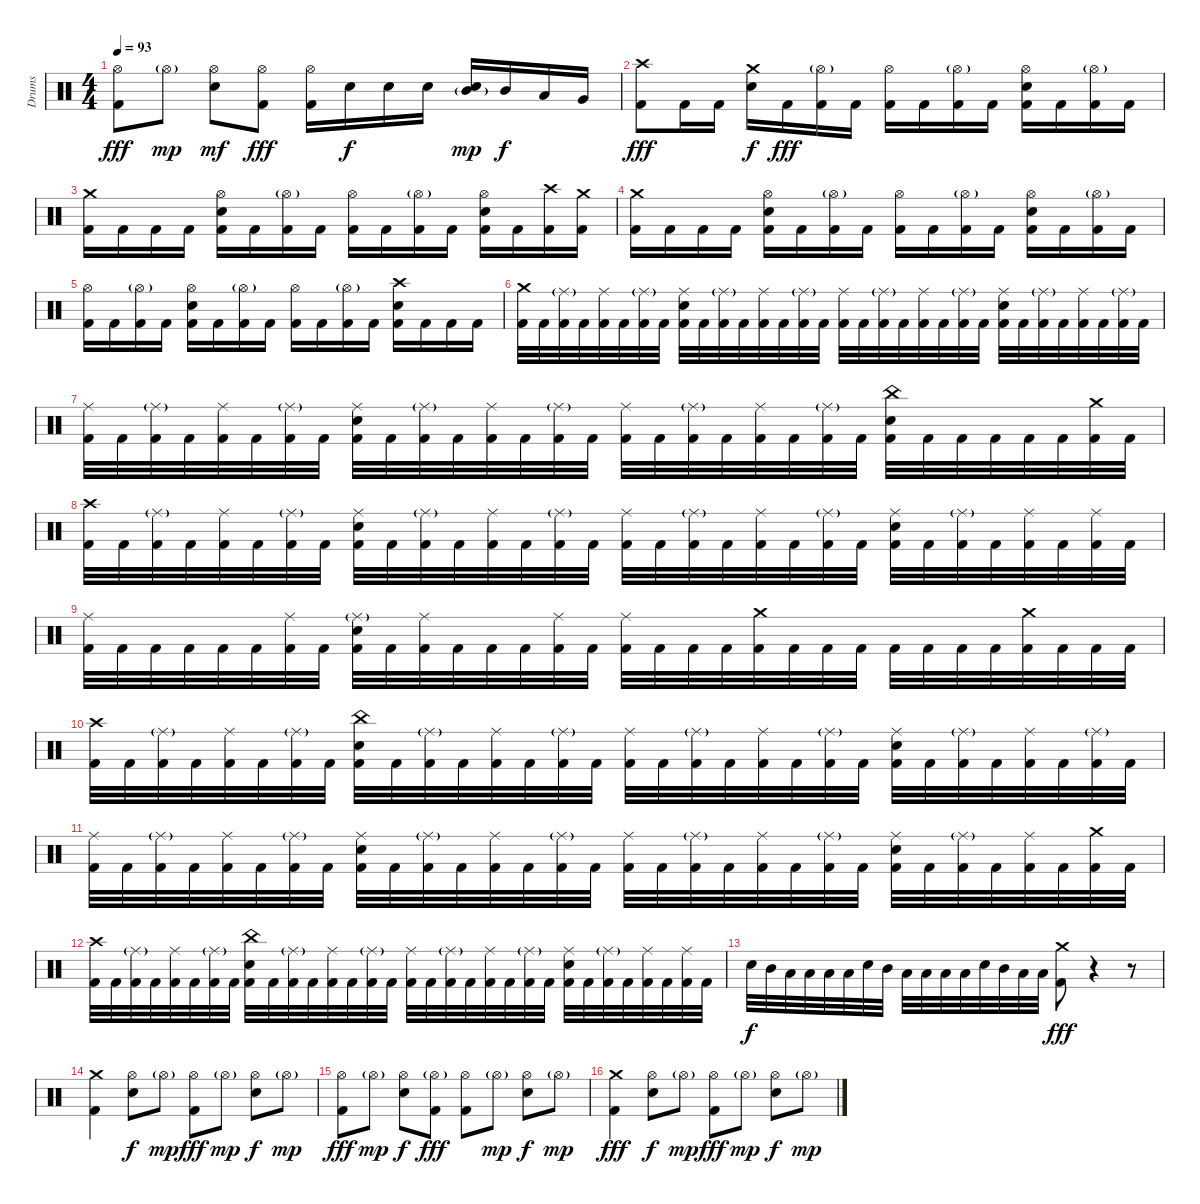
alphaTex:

\track ("Drums" "Drums") {instrument percussion}
\staff {score}
\articulation defaults
\ts (4 4)
\tempo 93
\clef neutral
\ks c
("Hi-Hat (open)" "Kick (hit) 2").8{dy fff} "Hi-Hat (open)"{g}.8{dy mp} ("Hi-Hat (open)" "Electric Snare (hit)").8{dy mf} ("Hi-Hat (open)" "Kick (hit) 2").8{dy fff} ("Hi-Hat (open)" "Kick (hit) 2").16 "Electric Snare (hit)".16{dy f} "Electric Snare (hit)".16 "Electric Snare (hit)".16 ("Mid Tom (hit)"{g} "Electric Snare (hit)").16{dy mp} "Mid Tom (hit)".16{dy f} "Low Tom (hit)".16 "Very Low Tom (hit)".16 |
("Crash high (hit)" "Kick (hit) 2").8{dy fff} "Kick (hit) 2".16 "Kick (hit) 2".16 ("Crash medium (hit)" "Electric Snare (hit)").16{dy f} "Kick (hit) 2".16{dy fff} ("Hi-Hat (open)"{g} "Kick (hit) 2").16 "Kick (hit) 2".16 ("Hi-Hat (open)" "Kick (hit) 2").16 "Kick (hit) 2".16 ("Hi-Hat (open)"{g} "Kick (hit) 2").16 "Kick (hit) 2".16 ("Hi-Hat (open)" "Electric Snare (hit)" "Kick (hit) 2").16 "Kick (hit) 2".16 ("Hi-Hat (open)"{g} "Kick (hit) 2").16 "Kick (hit) 2".16 |
("Crash medium (hit)" "Kick (hit) 2").16 "Kick (hit) 2".16 "Kick (hit) 2".16 "Kick (hit) 2".16 ("Hi-Hat (open)" "Electric Snare (hit)" "Kick (hit) 2").16 "Kick (hit) 2".16 ("Hi-Hat (open)"{g} "Kick (hit) 2").16 "Kick (hit) 2".16 ("Hi-Hat (open)" "Kick (hit) 2").16 "Kick (hit) 2".16 ("Hi-Hat (open)"{g} "Kick (hit) 2").16 "Kick (hit) 2".16 ("Hi-Hat (open)" "Electric Snare (hit)" "Kick (hit) 2").16 "Kick (hit) 2".16 ("Crash high (hit)" "Kick (hit) 2").16 ("Crash medium (hit)" "Kick (hit) 2").16 |
("Crash medium (hit)" "Kick (hit) 2").16 "Kick (hit) 2".16 "Kick (hit) 2".16 "Kick (hit) 2".16 ("Hi-Hat (open)" "Electric Snare (hit)" "Kick (hit) 2").16 "Kick (hit) 2".16 ("Hi-Hat (open)"{g} "Kick (hit) 2").16 "Kick (hit) 2".16 ("Hi-Hat (open)" "Kick (hit) 2").16 "Kick (hit) 2".16 ("Hi-Hat (open)"{g} "Kick (hit) 2").16 "Kick (hit) 2".16 ("Hi-Hat (open)" "Electric Snare (hit)" "Kick (hit) 2").16 "Kick (hit) 2".16 ("Hi-Hat (open)"{g} "Kick (hit) 2").16 "Kick (hit) 2".16 |
("Hi-Hat (open)" "Kick (hit) 2").16 "Kick (hit) 2".16 ("Hi-Hat (open)"{g} "Kick (hit) 2").16 "Kick (hit) 2".16 ("Hi-Hat (open)" "Electric Snare (hit)" "Kick (hit) 2").16 "Kick (hit) 2".16 ("Hi-Hat (open)"{g} "Kick (hit) 2").16 "Kick (hit) 2".16 ("Hi-Hat (open)" "Kick (hit) 2").16 "Kick (hit) 2".16 ("Hi-Hat (open)"{g} "Kick (hit) 2").16 "Kick (hit) 2".16 ("Crash high (hit)" "Electric Snare (hit)" "Kick (hit) 2").16 "Kick (hit) 2".16 "Kick (hit) 2".16 "Kick (hit) 2".16 |
("Crash medium (hit)" "Kick (hit) 2").32 "Kick (hit) 2".32 ("Ride (middle)"{g} "Kick (hit) 2").32 "Kick (hit) 2".32 ("Ride (middle)" "Kick (hit) 2").32 "Kick (hit) 2".32 ("Ride (middle)"{g} "Kick (hit) 2").32 "Kick (hit) 2".32 ("Ride (middle)" "Electric Snare (hit)" "Kick (hit) 2").32 "Kick (hit) 2".32 ("Ride (middle)"{g} "Kick (hit) 2").32 "Kick (hit) 2".32 ("Ride (middle)" "Kick (hit) 2").32 "Kick (hit) 2".32 ("Ride (middle)"{g} "Kick (hit) 2").32 "Kick (hit) 2".32 ("Ride (middle)" "Kick (hit) 2").32 "Kick (hit) 2".32 ("Ride (middle)"{g} "Kick (hit) 2").32 "Kick (hit) 2".32 ("Ride (middle)" "Kick (hit) 2").32 "Kick (hit) 2".32 ("Ride (middle)"{g} "Kick (hit) 2").32 "Kick (hit) 2".32 ("Ride (middle)" "Electric Snare (hit)" "Kick (hit) 2").32 "Kick (hit) 2".32 ("Ride (middle)"{g} "Kick (hit) 2").32 "Kick (hit) 2".32 ("Ride (middle)" "Kick (hit) 2").32 "Kick (hit) 2".32 ("Ride (middle)"{g} "Kick (hit) 2").32 "Kick (hit) 2".32 |
("Ride (middle)" "Kick (hit) 2").32 "Kick (hit) 2".32 ("Ride (middle)"{g} "Kick (hit) 2").32 "Kick (hit) 2".32 ("Ride (middle)" "Kick (hit) 2").32 "Kick (hit) 2".32 ("Ride (middle)"{g} "Kick (hit) 2").32 "Kick (hit) 2".32 ("Ride (middle)" "Electric Snare (hit)" "Kick (hit) 2").32 "Kick (hit) 2".32 ("Ride (middle)"{g} "Kick (hit) 2").32 "Kick (hit) 2".32 ("Ride (middle)" "Kick (hit) 2").32 "Kick (hit) 2".32 ("Ride (middle)"{g} "Kick (hit) 2").32 "Kick (hit) 2".32 ("Ride (middle)" "Kick (hit) 2").32 "Kick (hit) 2".32 ("Ride (middle)"{g} "Kick (hit) 2").32 "Kick (hit) 2".32 ("Ride (middle)" "Kick (hit) 2").32 "Kick (hit) 2".32 ("Ride (middle)"{g} "Kick (hit) 2").32 "Kick (hit) 2".32 ("China (hit)" "Electric Snare (hit)" "Kick (hit) 2").32 "Kick (hit) 2".32 "Kick (hit) 2".32 "Kick (hit) 2".32 "Kick (hit) 2".32 "Kick (hit) 2".32 ("Crash medium (hit)" "Kick (hit) 2").32 "Kick (hit) 2".32 |
("Crash high (hit)" "Kick (hit) 2").32 "Kick (hit) 2".32 ("Ride (middle)"{g} "Kick (hit) 2").32 "Kick (hit) 2".32 ("Ride (middle)" "Kick (hit) 2").32 "Kick (hit) 2".32 ("Ride (middle)"{g} "Kick (hit) 2").32 "Kick (hit) 2".32 ("Ride (middle)" "Electric Snare (hit)" "Kick (hit) 2").32 "Kick (hit) 2".32 ("Ride (middle)"{g} "Kick (hit) 2").32 "Kick (hit) 2".32 ("Ride (middle)" "Kick (hit) 2").32 "Kick (hit) 2".32 ("Ride (middle)"{g} "Kick (hit) 2").32 "Kick (hit) 2".32 ("Ride (middle)" "Kick (hit) 2").32 "Kick (hit) 2".32 ("Ride (middle)"{g} "Kick (hit) 2").32 "Kick (hit) 2".32 ("Ride (middle)" "Kick (hit) 2").32 "Kick (hit) 2".32 ("Ride (middle)"{g} "Kick (hit) 2").32 "Kick (hit) 2".32 ("Ride (middle)" "Electric Snare (hit)" "Kick (hit) 2").32 "Kick (hit) 2".32 ("Ride (middle)"{g} "Kick (hit) 2").32 "Kick (hit) 2".32 ("Ride (middle)" "Kick (hit) 2").32 "Kick (hit) 2".32 ("Ride (middle)" "Kick (hit) 2").32 "Kick (hit) 2".32 |
("Ride (middle)" "Kick (hit) 2").32 "Kick (hit) 2".32 "Kick (hit) 2".32 "Kick (hit) 2".32 "Kick (hit) 2".32 "Kick (hit) 2".32 ("Ride (middle)" "Kick (hit) 2").32 "Kick (hit) 2".32 ("Ride (middle)"{g} "Electric Snare (hit)" "Kick (hit) 2").32 "Kick (hit) 2".32 ("Ride (middle)" "Kick (hit) 2").32 "Kick (hit) 2".32 "Kick (hit) 2".32 "Kick (hit) 2".32 ("Ride (middle)" "Kick (hit) 2").32 "Kick (hit) 2".32 ("Ride (middle)" "Kick (hit) 2").32 "Kick (hit) 2".32 "Kick (hit) 2".32 "Kick (hit) 2".32 ("Crash medium (hit)" "Kick (hit) 2").32 "Kick (hit) 2".32 "Kick (hit) 2".32 "Kick (hit) 2".32 "Kick (hit) 2".32 "Kick (hit) 2".32 "Kick (hit) 2".32 "Kick (hit) 2".32 ("Crash medium (hit)" "Kick (hit) 2").32 "Kick (hit) 2".32 "Kick (hit) 2".32 "Kick (hit) 2".32 |
("Crash high (hit)" "Kick (hit) 2").32 "Kick (hit) 2".32 ("Ride (middle)"{g} "Kick (hit) 2").32 "Kick (hit) 2".32 ("Ride (middle)" "Kick (hit) 2").32 "Kick (hit) 2".32 ("Ride (middle)"{g} "Kick (hit) 2").32 "Kick (hit) 2".32 ("China (hit)" "Electric Snare (hit)" "Kick (hit) 2").32 "Kick (hit) 2".32 ("Ride (middle)"{g} "Kick (hit) 2").32 "Kick (hit) 2".32 ("Ride (middle)" "Kick (hit) 2").32 "Kick (hit) 2".32 ("Ride (middle)"{g} "Kick (hit) 2").32 "Kick (hit) 2".32 ("Ride (middle)" "Kick (hit) 2").32 "Kick (hit) 2".32 ("Ride (middle)"{g} "Kick (hit) 2").32 "Kick (hit) 2".32 ("Ride (middle)" "Kick (hit) 2").32 "Kick (hit) 2".32 ("Ride (middle)"{g} "Kick (hit) 2").32 "Kick (hit) 2".32 ("Ride (middle)" "Electric Snare (hit)" "Kick (hit) 2").32 "Kick (hit) 2".32 ("Ride (middle)"{g} "Kick (hit) 2").32 "Kick (hit) 2".32 ("Ride (middle)" "Kick (hit) 2").32 "Kick (hit) 2".32 ("Ride (middle)"{g} "Kick (hit) 2").32 "Kick (hit) 2".32 |
("Ride (middle)" "Kick (hit) 2").32 "Kick (hit) 2".32 ("Ride (middle)"{g} "Kick (hit) 2").32 "Kick (hit) 2".32 ("Ride (middle)" "Kick (hit) 2").32 "Kick (hit) 2".32 ("Ride (middle)"{g} "Kick (hit) 2").32 "Kick (hit) 2".32 ("Ride (middle)" "Electric Snare (hit)" "Kick (hit) 2").32 "Kick (hit) 2".32 ("Ride (middle)"{g} "Kick (hit) 2").32 "Kick (hit) 2".32 ("Ride (middle)" "Kick (hit) 2").32 "Kick (hit) 2".32 ("Ride (middle)"{g} "Kick (hit) 2").32 "Kick (hit) 2".32 ("Ride (middle)" "Kick (hit) 2").32 "Kick (hit) 2".32 ("Ride (middle)"{g} "Kick (hit) 2").32 "Kick (hit) 2".32 ("Ride (middle)" "Kick (hit) 2").32 "Kick (hit) 2".32 ("Ride (middle)"{g} "Kick (hit) 2").32 "Kick (hit) 2".32 ("Ride (middle)" "Electric Snare (hit)" "Kick (hit) 2").32 "Kick (hit) 2".32 ("Ride (middle)"{g} "Kick (hit) 2").32 "Kick (hit) 2".32 ("Ride (middle)" "Kick (hit) 2").32 "Kick (hit) 2".32 ("Crash medium (hit)" "Kick (hit) 2").32 "Kick (hit) 2".32 |
("Crash high (hit)" "Kick (hit) 2").32 "Kick (hit) 2".32 ("Ride (middle)"{g} "Kick (hit) 2").32 "Kick (hit) 2".32 ("Ride (middle)" "Kick (hit) 2").32 "Kick (hit) 2".32 ("Ride (middle)"{g} "Kick (hit) 2").32 "Kick (hit) 2".32 ("China (hit)" "Electric Snare (hit)" "Kick (hit) 2").32 "Kick (hit) 2".32 ("Ride (middle)"{g} "Kick (hit) 2").32 "Kick (hit) 2".32 ("Ride (middle)" "Kick (hit) 2").32 "Kick (hit) 2".32 ("Ride (middle)"{g} "Kick (hit) 2").32 "Kick (hit) 2".32 ("Ride (middle)" "Kick (hit) 2").32 "Kick (hit) 2".32 ("Ride (middle)"{g} "Kick (hit) 2").32 "Kick (hit) 2".32 ("Ride (middle)" "Kick (hit) 2").32 "Kick (hit) 2".32 ("Ride (middle)"{g} "Kick (hit) 2").32 "Kick (hit) 2".32 ("Ride (middle)" "Electric Snare (hit)" "Kick (hit) 2").32 "Kick (hit) 2".32 ("Ride (middle)"{g} "Kick (hit) 2").32 "Kick (hit) 2".32 ("Ride (middle)" "Kick (hit) 2").32 "Kick (hit) 2".32 ("Ride (middle)" "Kick (hit) 2").32 "Kick (hit) 2".32 |
"Electric Snare (hit)".32{dy f} "Mid Tom (hit)".32 "Low Tom (hit)".32 "Low Tom (hit)".32 "Low Tom (hit)".32 "Low Tom (hit)".32 "Electric Snare (hit)".32 "Mid Tom (hit)".32 "Low Tom (hit)".32 "Low Tom (hit)".32 "Low Tom (hit)".32 "Low Tom (hit)".32 "Electric Snare (hit)".32 "Mid Tom (hit)".32 "Low Tom (hit)".32 "Low Tom (hit)".32 ("Crash medium (hit)" "Kick (hit) 2").8{dy fff} r.4{volume 0} r.8 |
("Crash medium (hit)" "Kick (hit) 2").4{volume 13} ("Hi-Hat (open)" "Electric Snare (hit)").8{dy f} "Hi-Hat (open)"{g}.8{dy mp} ("Hi-Hat (open)" "Kick (hit) 2").8{dy fff} "Hi-Hat (open)"{g}.8{dy mp} ("Hi-Hat (open)" "Electric Snare (hit)").8{dy f} "Hi-Hat (open)"{g}.8{dy mp} |
("Hi-Hat (open)" "Kick (hit) 2").8{dy fff} "Hi-Hat (open)"{g}.8{dy mp} ("Hi-Hat (open)" "Electric Snare (hit)").8{dy f} ("Hi-Hat (open)"{g} "Kick (hit) 2").8{dy fff} ("Hi-Hat (open)" "Kick (hit) 2").8 "Hi-Hat (open)"{g}.8{dy mp} ("Hi-Hat (open)" "Electric Snare (hit)").8{dy f} "Hi-Hat (open)"{g}.8{dy mp} |
("Crash medium (hit)" "Kick (hit) 2").4{dy fff} ("Hi-Hat (open)" "Electric Snare (hit)").8{dy f} "Hi-Hat (open)"{g}.8{dy mp} ("Hi-Hat (open)" "Kick (hit) 2").8{dy fff} "Hi-Hat (open)"{g}.8{dy mp} ("Hi-Hat (open)" "Electric Snare (hit)").8{dy f} "Hi-Hat (open)"{g}.8{dy mp}
